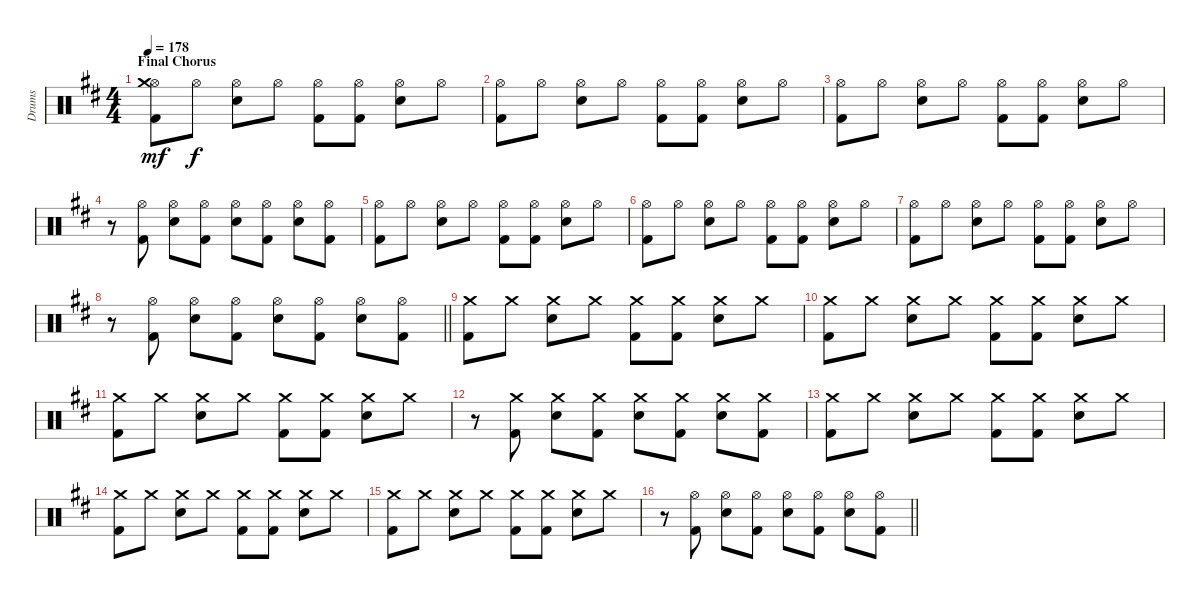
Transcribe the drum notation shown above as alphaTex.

\track ("Drums" "Drums") {instrument percussion}
\staff {score}
\articulation defaults
\ts (4 4)
\section ("" "Final Chorus")
\tempo 178
\clef neutral
\ks bminor
("Hi-Hat (open)" "Crash medium (hit)" "Kick (hit) 2").8{dy mf} "Hi-Hat (open)".8{dy f} ("Hi-Hat (open)" "Snare (hit) 2").8 "Hi-Hat (open)".8 ("Hi-Hat (open)" "Kick (hit) 2").8 ("Hi-Hat (open)" "Kick (hit) 2").8 ("Hi-Hat (open)" "Snare (hit) 2").8 "Hi-Hat (open)".8 |
("Hi-Hat (open)" "Kick (hit) 2").8 "Hi-Hat (open)".8 ("Hi-Hat (open)" "Snare (hit) 2").8 "Hi-Hat (open)".8 ("Hi-Hat (open)" "Kick (hit) 2").8 ("Hi-Hat (open)" "Kick (hit) 2").8 ("Hi-Hat (open)" "Snare (hit) 2").8 "Hi-Hat (open)".8 |
("Hi-Hat (open)" "Kick (hit) 2").8 "Hi-Hat (open)".8 ("Hi-Hat (open)" "Snare (hit) 2").8 "Hi-Hat (open)".8 ("Hi-Hat (open)" "Kick (hit) 2").8 ("Hi-Hat (open)" "Kick (hit) 2").8 ("Hi-Hat (open)" "Snare (hit) 2").8 "Hi-Hat (open)".8 |
r.8 ("Hi-Hat (open)" "Kick (hit) 2").8 ("Hi-Hat (open)" "Snare (hit) 2").8 ("Hi-Hat (open)" "Kick (hit) 2").8 ("Hi-Hat (open)" "Snare (hit) 2").8 ("Hi-Hat (open)" "Kick (hit) 2").8 ("Hi-Hat (open)" "Snare (hit) 2").8 ("Hi-Hat (open)" "Kick (hit) 2").8 |
("Hi-Hat (open)" "Kick (hit) 2").8 "Hi-Hat (open)".8 ("Hi-Hat (open)" "Snare (hit) 2").8 "Hi-Hat (open)".8 ("Hi-Hat (open)" "Kick (hit) 2").8 ("Hi-Hat (open)" "Kick (hit) 2").8 ("Hi-Hat (open)" "Snare (hit) 2").8 "Hi-Hat (open)".8 |
("Hi-Hat (open)" "Kick (hit) 2").8 "Hi-Hat (open)".8 ("Hi-Hat (open)" "Snare (hit) 2").8 "Hi-Hat (open)".8 ("Hi-Hat (open)" "Kick (hit) 2").8 ("Hi-Hat (open)" "Kick (hit) 2").8 ("Hi-Hat (open)" "Snare (hit) 2").8 "Hi-Hat (open)".8 |
("Hi-Hat (open)" "Kick (hit) 2").8 "Hi-Hat (open)".8 ("Hi-Hat (open)" "Snare (hit) 2").8 "Hi-Hat (open)".8 ("Hi-Hat (open)" "Kick (hit) 2").8 ("Hi-Hat (open)" "Kick (hit) 2").8 ("Hi-Hat (open)" "Snare (hit) 2").8 "Hi-Hat (open)".8 |
\barLineRight lightlight
r.8 ("Hi-Hat (open)" "Kick (hit) 2").8 ("Hi-Hat (open)" "Snare (hit) 2").8 ("Hi-Hat (open)" "Kick (hit) 2").8 ("Hi-Hat (open)" "Snare (hit) 2").8 ("Hi-Hat (open)" "Kick (hit) 2").8 ("Hi-Hat (open)" "Snare (hit) 2").8 ("Hi-Hat (open)" "Kick (hit) 2").8 |
("Crash medium (hit)" "Kick (hit) 2").8 "Crash medium (hit)".8 ("Crash medium (hit)" "Snare (hit) 2").8 "Crash medium (hit)".8 ("Crash medium (hit)" "Kick (hit) 2").8 ("Crash medium (hit)" "Kick (hit) 2").8 ("Crash medium (hit)" "Snare (hit) 2").8 "Crash medium (hit)".8 |
("Crash medium (hit)" "Kick (hit) 2").8 "Crash medium (hit)".8 ("Crash medium (hit)" "Snare (hit) 2").8 "Crash medium (hit)".8 ("Crash medium (hit)" "Kick (hit) 2").8 ("Crash medium (hit)" "Kick (hit) 2").8 ("Crash medium (hit)" "Snare (hit) 2").8 "Crash medium (hit)".8 |
("Crash medium (hit)" "Kick (hit) 2").8 "Crash medium (hit)".8 ("Crash medium (hit)" "Snare (hit) 2").8 "Crash medium (hit)".8 ("Crash medium (hit)" "Kick (hit) 2").8 ("Crash medium (hit)" "Kick (hit) 2").8 ("Crash medium (hit)" "Snare (hit) 2").8 "Crash medium (hit)".8 |
r.8 ("Crash medium (hit)" "Kick (hit) 2").8 ("Crash medium (hit)" "Snare (hit) 2").8 ("Crash medium (hit)" "Kick (hit) 2").8 ("Crash medium (hit)" "Snare (hit) 2").8 ("Crash medium (hit)" "Kick (hit) 2").8 ("Crash medium (hit)" "Snare (hit) 2").8 ("Crash medium (hit)" "Kick (hit) 2").8 |
("Crash medium (hit)" "Kick (hit) 2").8 "Crash medium (hit)".8 ("Crash medium (hit)" "Snare (hit) 2").8 "Crash medium (hit)".8 ("Crash medium (hit)" "Kick (hit) 2").8 ("Crash medium (hit)" "Kick (hit) 2").8 ("Crash medium (hit)" "Snare (hit) 2").8 "Crash medium (hit)".8 |
("Crash medium (hit)" "Kick (hit) 2").8 "Crash medium (hit)".8 ("Crash medium (hit)" "Snare (hit) 2").8 "Crash medium (hit)".8 ("Crash medium (hit)" "Kick (hit) 2").8 ("Crash medium (hit)" "Kick (hit) 2").8 ("Crash medium (hit)" "Snare (hit) 2").8 "Crash medium (hit)".8 |
("Crash medium (hit)" "Kick (hit) 2").8 "Crash medium (hit)".8 ("Crash medium (hit)" "Snare (hit) 2").8 "Crash medium (hit)".8 ("Crash medium (hit)" "Kick (hit) 2").8 ("Crash medium (hit)" "Kick (hit) 2").8 ("Crash medium (hit)" "Snare (hit) 2").8 "Crash medium (hit)".8 |
\barLineRight lightlight
r.8 ("Hi-Hat (open)" "Kick (hit) 2").8 ("Hi-Hat (open)" "Snare (hit) 2").8 ("Hi-Hat (open)" "Kick (hit) 2").8 ("Hi-Hat (open)" "Snare (hit) 2").8 ("Hi-Hat (open)" "Kick (hit) 2").8 ("Hi-Hat (open)" "Snare (hit) 2").8 ("Hi-Hat (open)" "Kick (hit) 2").8
